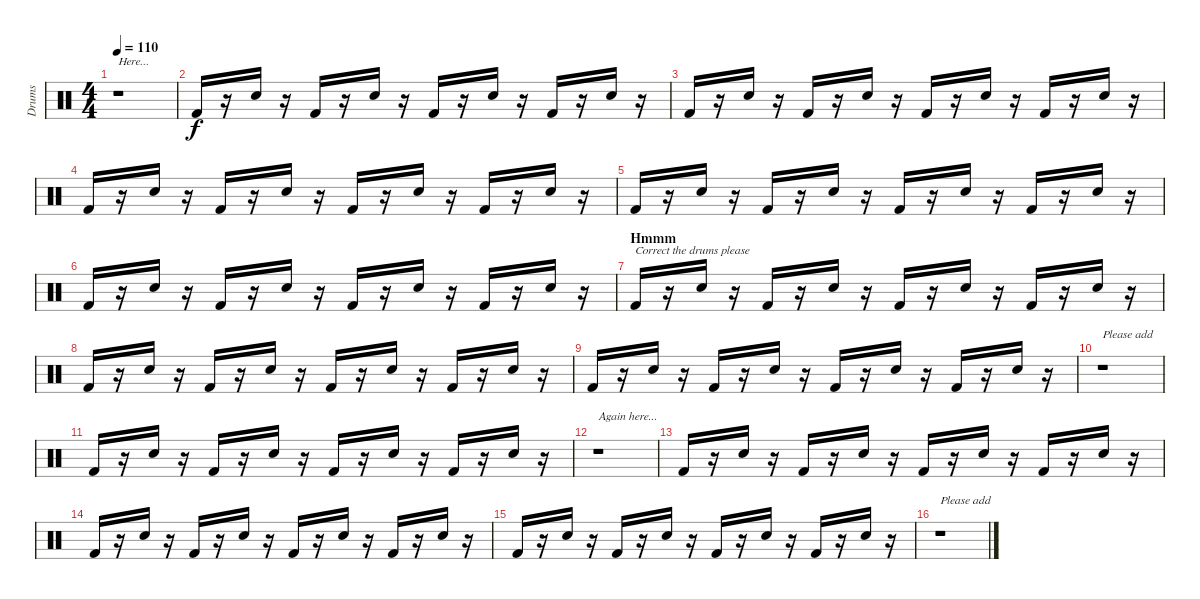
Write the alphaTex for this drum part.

\track ("Drums" "Drums") {instrument percussion}
\staff {score}
\articulation defaults
\ts (4 4)
\tempo 110
\clef neutral
\ks c
r.1{txt "Here..." dy f} |
"Kick (hit) 2".16 r.16 "Snare (hit) 2".16 r.16 "Kick (hit) 2".16 r.16 "Snare (hit) 2".16 r.16 "Kick (hit) 2".16 r.16 "Snare (hit) 2".16 r.16 "Kick (hit) 2".16 r.16 "Snare (hit) 2".16 r.16 |
"Kick (hit) 2".16 r.16 "Snare (hit) 2".16 r.16 "Kick (hit) 2".16 r.16 "Snare (hit) 2".16 r.16 "Kick (hit) 2".16 r.16 "Snare (hit) 2".16 r.16 "Kick (hit) 2".16 r.16 "Snare (hit) 2".16 r.16 |
"Kick (hit) 2".16 r.16 "Snare (hit) 2".16 r.16 "Kick (hit) 2".16 r.16 "Snare (hit) 2".16 r.16 "Kick (hit) 2".16 r.16 "Snare (hit) 2".16 r.16 "Kick (hit) 2".16 r.16 "Snare (hit) 2".16 r.16 |
"Kick (hit) 2".16 r.16 "Snare (hit) 2".16 r.16 "Kick (hit) 2".16 r.16 "Snare (hit) 2".16 r.16 "Kick (hit) 2".16 r.16 "Snare (hit) 2".16 r.16 "Kick (hit) 2".16 r.16 "Snare (hit) 2".16 r.16 |
"Kick (hit) 2".16 r.16 "Snare (hit) 2".16 r.16 "Kick (hit) 2".16 r.16 "Snare (hit) 2".16 r.16 "Kick (hit) 2".16 r.16 "Snare (hit) 2".16 r.16 "Kick (hit) 2".16 r.16 "Snare (hit) 2".16 r.16 |
\section ("" "Hmmm")
"Kick (hit) 2".16{txt "Correct the drums please"} r.16 "Snare (hit) 2".16 r.16 "Kick (hit) 2".16 r.16 "Snare (hit) 2".16 r.16 "Kick (hit) 2".16 r.16 "Snare (hit) 2".16 r.16 "Kick (hit) 2".16 r.16 "Snare (hit) 2".16 r.16 |
"Kick (hit) 2".16 r.16 "Snare (hit) 2".16 r.16 "Kick (hit) 2".16 r.16 "Snare (hit) 2".16 r.16 "Kick (hit) 2".16 r.16 "Snare (hit) 2".16 r.16 "Kick (hit) 2".16 r.16 "Snare (hit) 2".16 r.16 |
"Kick (hit) 2".16 r.16 "Snare (hit) 2".16 r.16 "Kick (hit) 2".16 r.16 "Snare (hit) 2".16 r.16 "Kick (hit) 2".16 r.16 "Snare (hit) 2".16 r.16 "Kick (hit) 2".16 r.16 "Snare (hit) 2".16 r.16 |
r.1{txt "Please add"} |
"Kick (hit) 2".16 r.16 "Snare (hit) 2".16 r.16 "Kick (hit) 2".16 r.16 "Snare (hit) 2".16 r.16 "Kick (hit) 2".16 r.16 "Snare (hit) 2".16 r.16 "Kick (hit) 2".16 r.16 "Snare (hit) 2".16 r.16 |
r.1{txt "Again here..."} |
"Kick (hit) 2".16 r.16 "Snare (hit) 2".16 r.16 "Kick (hit) 2".16 r.16 "Snare (hit) 2".16 r.16 "Kick (hit) 2".16 r.16 "Snare (hit) 2".16 r.16 "Kick (hit) 2".16 r.16 "Snare (hit) 2".16 r.16 |
"Kick (hit) 2".16 r.16 "Snare (hit) 2".16 r.16 "Kick (hit) 2".16 r.16 "Snare (hit) 2".16 r.16 "Kick (hit) 2".16 r.16 "Snare (hit) 2".16 r.16 "Kick (hit) 2".16 r.16 "Snare (hit) 2".16 r.16 |
"Kick (hit) 2".16 r.16 "Snare (hit) 2".16 r.16 "Kick (hit) 2".16 r.16 "Snare (hit) 2".16 r.16 "Kick (hit) 2".16 r.16 "Snare (hit) 2".16 r.16 "Kick (hit) 2".16 r.16 "Snare (hit) 2".16 r.16 |
r.1{txt "Please add"}
